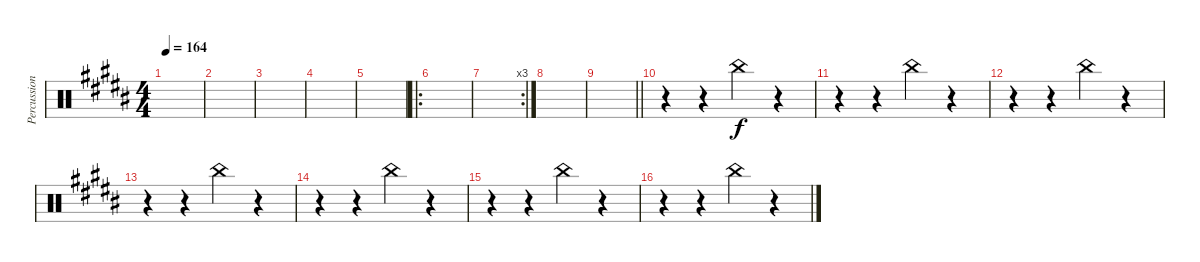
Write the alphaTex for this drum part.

\track ("Percussion" "Percussion") {instrument percussion}
\staff {score}
\articulation defaults
\ts (4 4)
\tempo 164
\clef neutral
\ks g#minor
|
|
|
|
|
\ro
|
\rc 3
|
|
\barLineRight lightlight
|
r.4 r.4 "China (hit)".4 r.4 |
r.4 r.4 "China (hit)".4 r.4 |
r.4 r.4 "China (hit)".4 r.4 |
r.4 r.4 "China (hit)".4 r.4 |
r.4 r.4 "China (hit)".4 r.4 |
r.4 r.4 "China (hit)".4 r.4 |
r.4 r.4 "China (hit)".4 r.4
